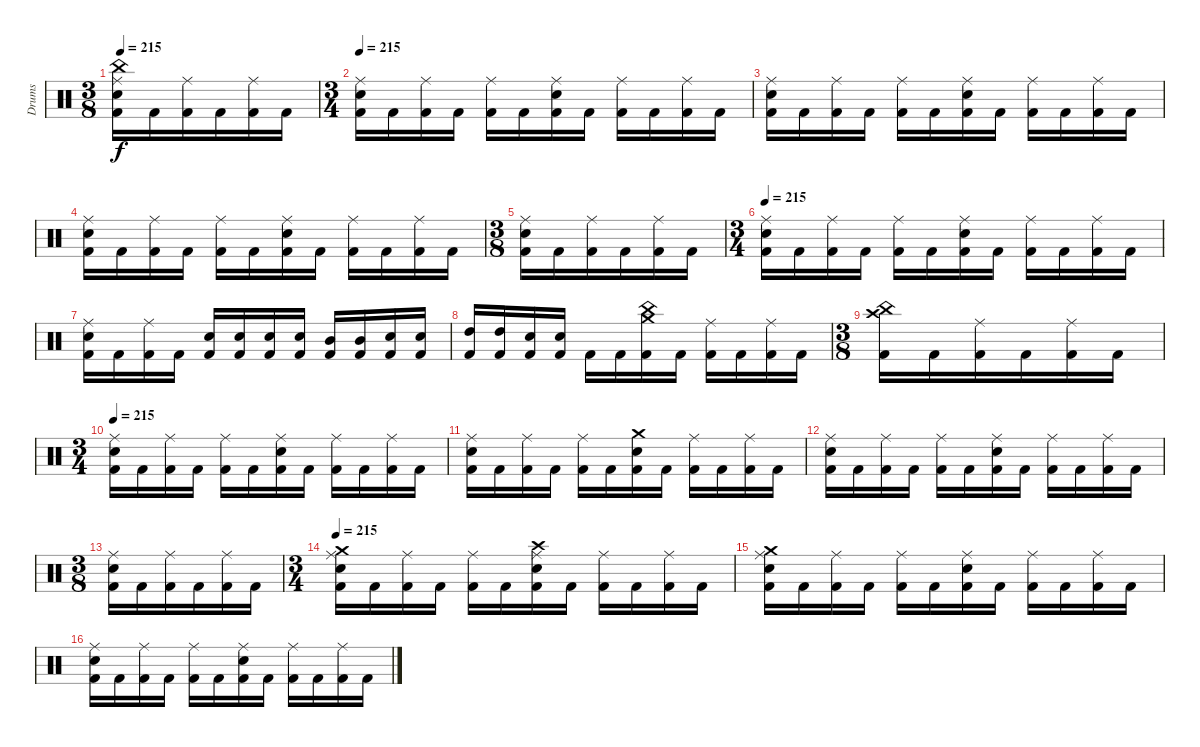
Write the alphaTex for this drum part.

\track ("Drums" "Drums") {instrument percussion}
\staff {score}
\articulation defaults
\ts (3 8)
\tempo 215
\clef neutral
\ks c
("Kick (hit) 2" "Electric Snare (hit)" "Ride (middle)" "China (hit)").16{dy f} "Kick (hit) 2".16 ("Kick (hit) 2" "Ride (middle)").16 "Kick (hit) 2".16 ("Kick (hit) 2" "Ride (middle)").16 "Kick (hit) 2".16 |
\ts (3 4)
\tempo 215
("Kick (hit) 2" "Electric Snare (hit)" "Ride (middle)").16 "Kick (hit) 2".16 ("Kick (hit) 2" "Ride (middle)").16 "Kick (hit) 2".16 ("Kick (hit) 2" "Ride (middle)").16 "Kick (hit) 2".16 ("Kick (hit) 2" "Electric Snare (hit)" "Ride (middle)").16 "Kick (hit) 2".16 ("Kick (hit) 2" "Ride (middle)").16 "Kick (hit) 2".16 ("Kick (hit) 2" "Ride (middle)").16 "Kick (hit) 2".16 |
("Kick (hit) 2" "Electric Snare (hit)" "Ride (middle)").16 "Kick (hit) 2".16 ("Kick (hit) 2" "Ride (middle)").16 "Kick (hit) 2".16 ("Kick (hit) 2" "Ride (middle)").16 "Kick (hit) 2".16 ("Kick (hit) 2" "Electric Snare (hit)" "Ride (middle)").16 "Kick (hit) 2".16 ("Kick (hit) 2" "Ride (middle)").16 "Kick (hit) 2".16 ("Kick (hit) 2" "Ride (middle)").16 "Kick (hit) 2".16 |
("Kick (hit) 2" "Electric Snare (hit)" "Ride (middle)").16 "Kick (hit) 2".16 ("Kick (hit) 2" "Ride (middle)").16 "Kick (hit) 2".16 ("Kick (hit) 2" "Ride (middle)").16 "Kick (hit) 2".16 ("Kick (hit) 2" "Electric Snare (hit)" "Ride (middle)").16 "Kick (hit) 2".16 ("Kick (hit) 2" "Ride (middle)").16 "Kick (hit) 2".16 ("Kick (hit) 2" "Ride (middle)").16 "Kick (hit) 2".16 |
\ts (3 8)
("Kick (hit) 2" "Electric Snare (hit)" "Ride (middle)").16 "Kick (hit) 2".16 ("Kick (hit) 2" "Ride (middle)").16 "Kick (hit) 2".16 ("Kick (hit) 2" "Ride (middle)").16 "Kick (hit) 2".16 |
\ts (3 4)
\tempo 215
("Kick (hit) 2" "Electric Snare (hit)" "Ride (middle)").16 "Kick (hit) 2".16 ("Kick (hit) 2" "Ride (middle)").16 "Kick (hit) 2".16 ("Kick (hit) 2" "Ride (middle)").16 "Kick (hit) 2".16 ("Kick (hit) 2" "Electric Snare (hit)" "Ride (middle)").16 "Kick (hit) 2".16 ("Kick (hit) 2" "Ride (middle)").16 "Kick (hit) 2".16 ("Kick (hit) 2" "Ride (middle)").16 "Kick (hit) 2".16 |
("Kick (hit) 2" "Electric Snare (hit)" "Ride (middle)").16 "Kick (hit) 2".16 ("Kick (hit) 2" "Ride (middle)").16 "Kick (hit) 2".16 ("Kick (hit) 2" "Electric Snare (hit)").16 ("Kick (hit) 2" "Electric Snare (hit)").16 ("Kick (hit) 2" "Electric Snare (hit)").16 ("Kick (hit) 2" "Electric Snare (hit)").16 ("Kick (hit) 2" "Mid Tom (hit)").16 ("Kick (hit) 2" "Mid Tom (hit)").16 ("Kick (hit) 2" "Electric Snare (hit)").16 ("Kick (hit) 2" "Electric Snare (hit)").16 |
("Kick (hit) 2" "High Tom (hit)").16 ("Kick (hit) 2" "High Tom (hit)").16 ("Kick (hit) 2" "Electric Snare (hit)").16 ("Kick (hit) 2" "Electric Snare (hit)").16 "Kick (hit) 2".16 "Kick (hit) 2".16 ("Kick (hit) 2" "Crash medium (hit)" "China (hit)").16 "Kick (hit) 2".16 ("Kick (hit) 2" "Ride (middle)").16 "Kick (hit) 2".16 ("Kick (hit) 2" "Ride (middle)").16 "Kick (hit) 2".16 |
\ts (3 8)
("Kick (hit) 2" "Crash high (hit)" "China (hit)").16 "Kick (hit) 2".16 ("Kick (hit) 2" "Ride (middle)").16 "Kick (hit) 2".16 ("Kick (hit) 2" "Ride (middle)").16 "Kick (hit) 2".16 |
\ts (3 4)
\tempo 215
("Kick (hit) 2" "Electric Snare (hit)" "Ride (middle)").16 "Kick (hit) 2".16 ("Kick (hit) 2" "Ride (middle)").16 "Kick (hit) 2".16 ("Kick (hit) 2" "Ride (middle)").16 "Kick (hit) 2".16 ("Kick (hit) 2" "Electric Snare (hit)" "Ride (middle)").16 "Kick (hit) 2".16 ("Kick (hit) 2" "Ride (middle)").16 "Kick (hit) 2".16 ("Kick (hit) 2" "Ride (middle)").16 "Kick (hit) 2".16 |
("Kick (hit) 2" "Electric Snare (hit)" "Ride (middle)").16 "Kick (hit) 2".16 ("Kick (hit) 2" "Ride (middle)").16 "Kick (hit) 2".16 ("Kick (hit) 2" "Ride (middle)").16 "Kick (hit) 2".16 ("Kick (hit) 2" "Electric Snare (hit)" "Crash medium (hit)").16 "Kick (hit) 2".16 ("Kick (hit) 2" "Ride (middle)").16 "Kick (hit) 2".16 ("Kick (hit) 2" "Ride (middle)").16 "Kick (hit) 2".16 |
("Kick (hit) 2" "Electric Snare (hit)" "Ride (middle)").16 "Kick (hit) 2".16 ("Kick (hit) 2" "Ride (middle)").16 "Kick (hit) 2".16 ("Kick (hit) 2" "Ride (middle)").16 "Kick (hit) 2".16 ("Kick (hit) 2" "Electric Snare (hit)" "Ride (middle)").16 "Kick (hit) 2".16 ("Kick (hit) 2" "Ride (middle)").16 "Kick (hit) 2".16 ("Kick (hit) 2" "Ride (middle)").16 "Kick (hit) 2".16 |
\ts (3 8)
("Kick (hit) 2" "Electric Snare (hit)" "Ride (middle)").16 "Kick (hit) 2".16 ("Kick (hit) 2" "Ride (middle)").16 "Kick (hit) 2".16 ("Kick (hit) 2" "Ride (middle)").16 "Kick (hit) 2".16 |
\ts (3 4)
\tempo 215
("Kick (hit) 2" "Electric Snare (hit)" "Ride (middle)" "Crash medium (hit)").16 "Kick (hit) 2".16 ("Kick (hit) 2" "Ride (middle)").16 "Kick (hit) 2".16 ("Kick (hit) 2" "Ride (middle)").16 "Kick (hit) 2".16 ("Kick (hit) 2" "Electric Snare (hit)" "Ride (middle)" "Crash high (hit)").16 "Kick (hit) 2".16 ("Kick (hit) 2" "Ride (middle)").16 "Kick (hit) 2".16 ("Kick (hit) 2" "Ride (middle)").16 "Kick (hit) 2".16 |
("Kick (hit) 2" "Electric Snare (hit)" "Ride (middle)" "Crash medium (hit)").16 "Kick (hit) 2".16 ("Kick (hit) 2" "Ride (middle)").16 "Kick (hit) 2".16 ("Kick (hit) 2" "Ride (middle)").16 "Kick (hit) 2".16 ("Kick (hit) 2" "Electric Snare (hit)" "Ride (middle)").16 "Kick (hit) 2".16 ("Kick (hit) 2" "Ride (middle)").16 "Kick (hit) 2".16 ("Kick (hit) 2" "Ride (middle)").16 "Kick (hit) 2".16 |
("Kick (hit) 2" "Electric Snare (hit)" "Ride (middle)").16 "Kick (hit) 2".16 ("Kick (hit) 2" "Ride (middle)").16 "Kick (hit) 2".16 ("Kick (hit) 2" "Ride (middle)").16 "Kick (hit) 2".16 ("Kick (hit) 2" "Electric Snare (hit)" "Ride (middle)").16 "Kick (hit) 2".16 ("Kick (hit) 2" "Ride (middle)").16 "Kick (hit) 2".16 ("Kick (hit) 2" "Ride (middle)").16 "Kick (hit) 2".16
